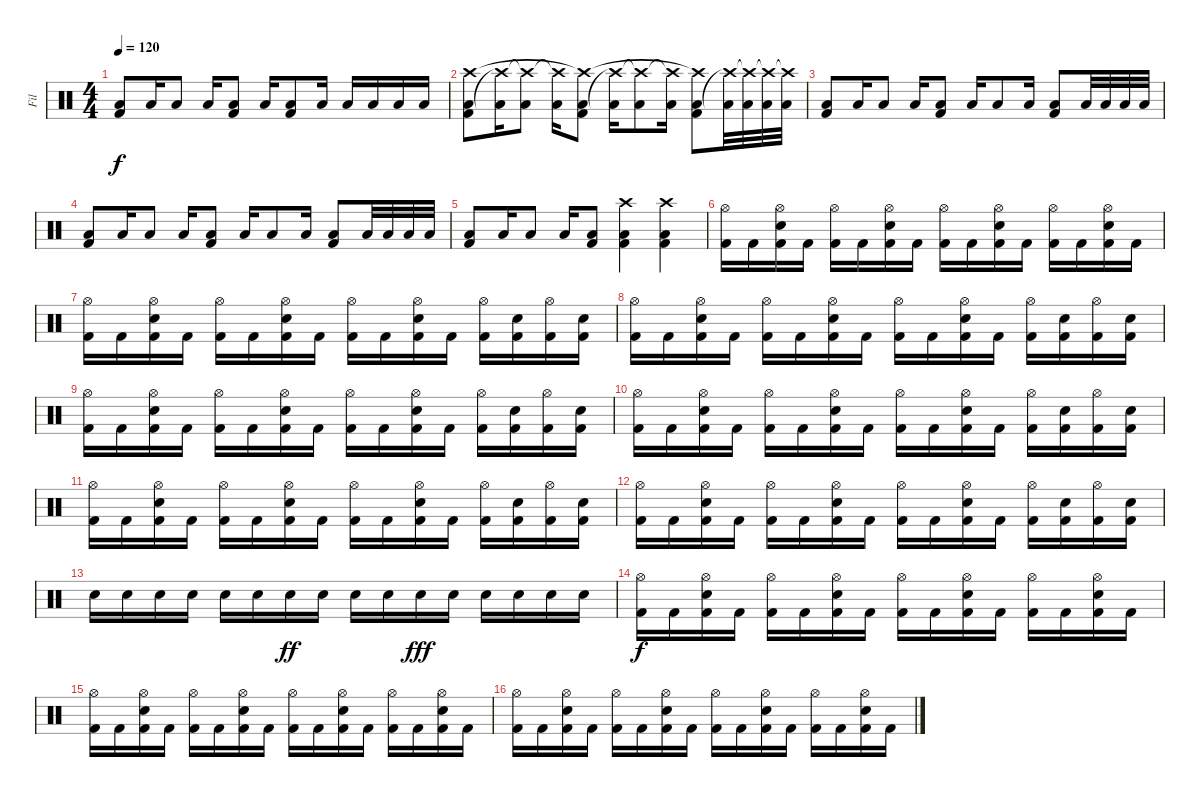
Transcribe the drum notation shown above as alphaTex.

\track ("Fil" "Fil") {instrument percussion}
\staff {score}
\articulation defaults
\ts (4 4)
\tempo 120
\clef neutral
\ks c
("Low Floor Tom (hit)" "Kick (hit) 2").8{dy f} "Low Floor Tom (hit)".16 "Low Floor Tom (hit)".8 "Low Floor Tom (hit)".16 ("Low Floor Tom (hit)" "Kick (hit) 2").8 "Low Floor Tom (hit)".16 ("Low Floor Tom (hit)" "Kick (hit) 2").8 "Low Floor Tom (hit)".16 "Low Floor Tom (hit)".16 "Low Floor Tom (hit)".16 "Low Floor Tom (hit)".16 "Low Floor Tom (hit)".16 |
("Low Floor Tom (hit)" "Kick (hit) 2" "Crash high (hit)").8 ("Low Floor Tom (hit)" "Crash high (hit)"{t}).16 ("Low Floor Tom (hit)" "Crash high (hit)"{t}).8 ("Low Floor Tom (hit)" "Crash high (hit)"{t}).16 ("Low Floor Tom (hit)" "Kick (hit) 2" "Crash high (hit)"{t}).8 ("Low Floor Tom (hit)" "Crash high (hit)"{t}).16 ("Low Floor Tom (hit)" "Crash high (hit)"{t}).8 ("Low Floor Tom (hit)" "Crash high (hit)"{t}).16 ("Low Floor Tom (hit)" "Kick (hit) 2" "Crash high (hit)"{t}).8 ("Low Floor Tom (hit)" "Crash high (hit)"{t}).32 ("Low Floor Tom (hit)" "Crash high (hit)"{t}).32 ("Low Floor Tom (hit)" "Crash high (hit)"{t}).32 ("Low Floor Tom (hit)" "Crash high (hit)"{t}).32 |
("Low Floor Tom (hit)" "Kick (hit) 2").8 "Low Floor Tom (hit)".16 "Low Floor Tom (hit)".8 "Low Floor Tom (hit)".16 ("Low Floor Tom (hit)" "Kick (hit) 2").8 "Low Floor Tom (hit)".16 "Low Floor Tom (hit)".8 "Low Floor Tom (hit)".16 ("Low Floor Tom (hit)" "Kick (hit) 2").8 "Low Floor Tom (hit)".32 "Low Floor Tom (hit)".32 "Low Floor Tom (hit)".32 "Low Floor Tom (hit)".32 |
("Low Floor Tom (hit)" "Kick (hit) 2").8 "Low Floor Tom (hit)".16 "Low Floor Tom (hit)".8 "Low Floor Tom (hit)".16 ("Low Floor Tom (hit)" "Kick (hit) 2").8 "Low Floor Tom (hit)".16 "Low Floor Tom (hit)".8 "Low Floor Tom (hit)".16 ("Low Floor Tom (hit)" "Kick (hit) 2").8 "Low Floor Tom (hit)".32 "Low Floor Tom (hit)".32 "Low Floor Tom (hit)".32 "Low Floor Tom (hit)".32 |
("Low Floor Tom (hit)" "Kick (hit) 2").8 "Low Floor Tom (hit)".16 "Low Floor Tom (hit)".8 "Low Floor Tom (hit)".16 ("Low Floor Tom (hit)" "Kick (hit) 2").8 ("Kick (hit) 2" "Low Floor Tom (hit)" "Crash high (hit)").4 ("Kick (hit) 2" "Low Floor Tom (hit)" "Crash high (hit)").4 |
("Kick (hit) 2" "Hi-Hat (open)").16 "Kick (hit) 2".16 ("Kick (hit) 2" "Snare (hit) 2" "Hi-Hat (open)").16 "Kick (hit) 2".16 ("Kick (hit) 2" "Hi-Hat (open)").16 "Kick (hit) 2".16 ("Kick (hit) 2" "Snare (hit) 2" "Hi-Hat (open)").16 "Kick (hit) 2".16 ("Kick (hit) 2" "Hi-Hat (open)").16 "Kick (hit) 2".16 ("Kick (hit) 2" "Snare (hit) 2" "Hi-Hat (open)").16 "Kick (hit) 2".16 ("Kick (hit) 2" "Hi-Hat (open)").16 "Kick (hit) 2".16 ("Kick (hit) 2" "Snare (hit) 2" "Hi-Hat (open)").16 "Kick (hit) 2".16 |
("Kick (hit) 2" "Hi-Hat (open)").16 "Kick (hit) 2".16 ("Kick (hit) 2" "Snare (hit) 2" "Hi-Hat (open)").16 "Kick (hit) 2".16 ("Kick (hit) 2" "Hi-Hat (open)").16 "Kick (hit) 2".16 ("Kick (hit) 2" "Snare (hit) 2" "Hi-Hat (open)").16 "Kick (hit) 2".16 ("Kick (hit) 2" "Hi-Hat (open)").16 "Kick (hit) 2".16 ("Kick (hit) 2" "Snare (hit) 2" "Hi-Hat (open)").16 "Kick (hit) 2".16 ("Kick (hit) 2" "Hi-Hat (open)").16 ("Kick (hit) 2" "Snare (hit) 2").16 ("Kick (hit) 2" "Hi-Hat (open)").16 ("Kick (hit) 2" "Snare (hit) 2").16 |
("Kick (hit) 2" "Hi-Hat (open)").16 "Kick (hit) 2".16 ("Kick (hit) 2" "Snare (hit) 2" "Hi-Hat (open)").16 "Kick (hit) 2".16 ("Kick (hit) 2" "Hi-Hat (open)").16 "Kick (hit) 2".16 ("Kick (hit) 2" "Snare (hit) 2" "Hi-Hat (open)").16 "Kick (hit) 2".16 ("Kick (hit) 2" "Hi-Hat (open)").16 "Kick (hit) 2".16 ("Kick (hit) 2" "Snare (hit) 2" "Hi-Hat (open)").16 "Kick (hit) 2".16 ("Kick (hit) 2" "Hi-Hat (open)").16 ("Kick (hit) 2" "Snare (hit) 2").16 ("Kick (hit) 2" "Hi-Hat (open)").16 ("Kick (hit) 2" "Snare (hit) 2").16 |
("Kick (hit) 2" "Hi-Hat (open)").16 "Kick (hit) 2".16 ("Kick (hit) 2" "Snare (hit) 2" "Hi-Hat (open)").16 "Kick (hit) 2".16 ("Kick (hit) 2" "Hi-Hat (open)").16 "Kick (hit) 2".16 ("Kick (hit) 2" "Snare (hit) 2" "Hi-Hat (open)").16 "Kick (hit) 2".16 ("Kick (hit) 2" "Hi-Hat (open)").16 "Kick (hit) 2".16 ("Kick (hit) 2" "Snare (hit) 2" "Hi-Hat (open)").16 "Kick (hit) 2".16 ("Kick (hit) 2" "Hi-Hat (open)").16 ("Kick (hit) 2" "Snare (hit) 2").16 ("Kick (hit) 2" "Hi-Hat (open)").16 ("Kick (hit) 2" "Snare (hit) 2").16 |
("Kick (hit) 2" "Hi-Hat (open)").16 "Kick (hit) 2".16 ("Kick (hit) 2" "Snare (hit) 2" "Hi-Hat (open)").16 "Kick (hit) 2".16 ("Kick (hit) 2" "Hi-Hat (open)").16 "Kick (hit) 2".16 ("Kick (hit) 2" "Snare (hit) 2" "Hi-Hat (open)").16 "Kick (hit) 2".16 ("Kick (hit) 2" "Hi-Hat (open)").16 "Kick (hit) 2".16 ("Kick (hit) 2" "Snare (hit) 2" "Hi-Hat (open)").16 "Kick (hit) 2".16 ("Kick (hit) 2" "Hi-Hat (open)").16 ("Kick (hit) 2" "Snare (hit) 2").16 ("Kick (hit) 2" "Hi-Hat (open)").16 ("Kick (hit) 2" "Snare (hit) 2").16 |
("Kick (hit) 2" "Hi-Hat (open)").16 "Kick (hit) 2".16 ("Kick (hit) 2" "Snare (hit) 2" "Hi-Hat (open)").16 "Kick (hit) 2".16 ("Kick (hit) 2" "Hi-Hat (open)").16 "Kick (hit) 2".16 ("Kick (hit) 2" "Snare (hit) 2" "Hi-Hat (open)").16 "Kick (hit) 2".16 ("Kick (hit) 2" "Hi-Hat (open)").16 "Kick (hit) 2".16 ("Kick (hit) 2" "Snare (hit) 2" "Hi-Hat (open)").16 "Kick (hit) 2".16 ("Kick (hit) 2" "Hi-Hat (open)").16 ("Kick (hit) 2" "Snare (hit) 2").16 ("Kick (hit) 2" "Hi-Hat (open)").16 ("Kick (hit) 2" "Snare (hit) 2").16 |
("Kick (hit) 2" "Hi-Hat (open)").16 "Kick (hit) 2".16 ("Kick (hit) 2" "Snare (hit) 2" "Hi-Hat (open)").16 "Kick (hit) 2".16 ("Kick (hit) 2" "Hi-Hat (open)").16 "Kick (hit) 2".16 ("Kick (hit) 2" "Snare (hit) 2" "Hi-Hat (open)").16 "Kick (hit) 2".16 ("Kick (hit) 2" "Hi-Hat (open)").16 "Kick (hit) 2".16 ("Kick (hit) 2" "Snare (hit) 2" "Hi-Hat (open)").16 "Kick (hit) 2".16 ("Kick (hit) 2" "Hi-Hat (open)").16 ("Kick (hit) 2" "Snare (hit) 2").16 ("Kick (hit) 2" "Hi-Hat (open)").16 ("Kick (hit) 2" "Snare (hit) 2").16 |
"Snare (hit) 2".16 "Snare (hit) 2".16 "Snare (hit) 2".16 "Snare (hit) 2".16 "Snare (hit) 2".16 "Snare (hit) 2".16 "Snare (hit) 2".16{dy ff} "Snare (hit) 2".16 "Snare (hit) 2".16 "Snare (hit) 2".16 "Snare (hit) 2".16{dy fff} "Snare (hit) 2".16 "Snare (hit) 2".16 "Snare (hit) 2".16 "Snare (hit) 2".16 "Snare (hit) 2".16 |
("Kick (hit) 2" "Hi-Hat (open)").16{dy f} "Kick (hit) 2".16 ("Kick (hit) 2" "Snare (hit) 2" "Hi-Hat (open)").16 "Kick (hit) 2".16 ("Kick (hit) 2" "Hi-Hat (open)").16 "Kick (hit) 2".16 ("Kick (hit) 2" "Snare (hit) 2" "Hi-Hat (open)").16 "Kick (hit) 2".16 ("Kick (hit) 2" "Hi-Hat (open)").16 "Kick (hit) 2".16 ("Kick (hit) 2" "Snare (hit) 2" "Hi-Hat (open)").16 "Kick (hit) 2".16 ("Kick (hit) 2" "Hi-Hat (open)").16 "Kick (hit) 2".16 ("Kick (hit) 2" "Snare (hit) 2" "Hi-Hat (open)").16 "Kick (hit) 2".16 |
("Kick (hit) 2" "Hi-Hat (open)").16 "Kick (hit) 2".16 ("Kick (hit) 2" "Snare (hit) 2" "Hi-Hat (open)").16 "Kick (hit) 2".16 ("Kick (hit) 2" "Hi-Hat (open)").16 "Kick (hit) 2".16 ("Kick (hit) 2" "Snare (hit) 2" "Hi-Hat (open)").16 "Kick (hit) 2".16 ("Kick (hit) 2" "Hi-Hat (open)").16 "Kick (hit) 2".16 ("Kick (hit) 2" "Snare (hit) 2" "Hi-Hat (open)").16 "Kick (hit) 2".16 ("Kick (hit) 2" "Hi-Hat (open)").16 "Kick (hit) 2".16 ("Kick (hit) 2" "Snare (hit) 2" "Hi-Hat (open)").16 "Kick (hit) 2".16 |
("Kick (hit) 2" "Hi-Hat (open)").16 "Kick (hit) 2".16 ("Kick (hit) 2" "Snare (hit) 2" "Hi-Hat (open)").16 "Kick (hit) 2".16 ("Kick (hit) 2" "Hi-Hat (open)").16 "Kick (hit) 2".16 ("Kick (hit) 2" "Snare (hit) 2" "Hi-Hat (open)").16 "Kick (hit) 2".16 ("Kick (hit) 2" "Hi-Hat (open)").16 "Kick (hit) 2".16 ("Kick (hit) 2" "Snare (hit) 2" "Hi-Hat (open)").16 "Kick (hit) 2".16 ("Kick (hit) 2" "Hi-Hat (open)").16 "Kick (hit) 2".16 ("Kick (hit) 2" "Snare (hit) 2" "Hi-Hat (open)").16 "Kick (hit) 2".16
